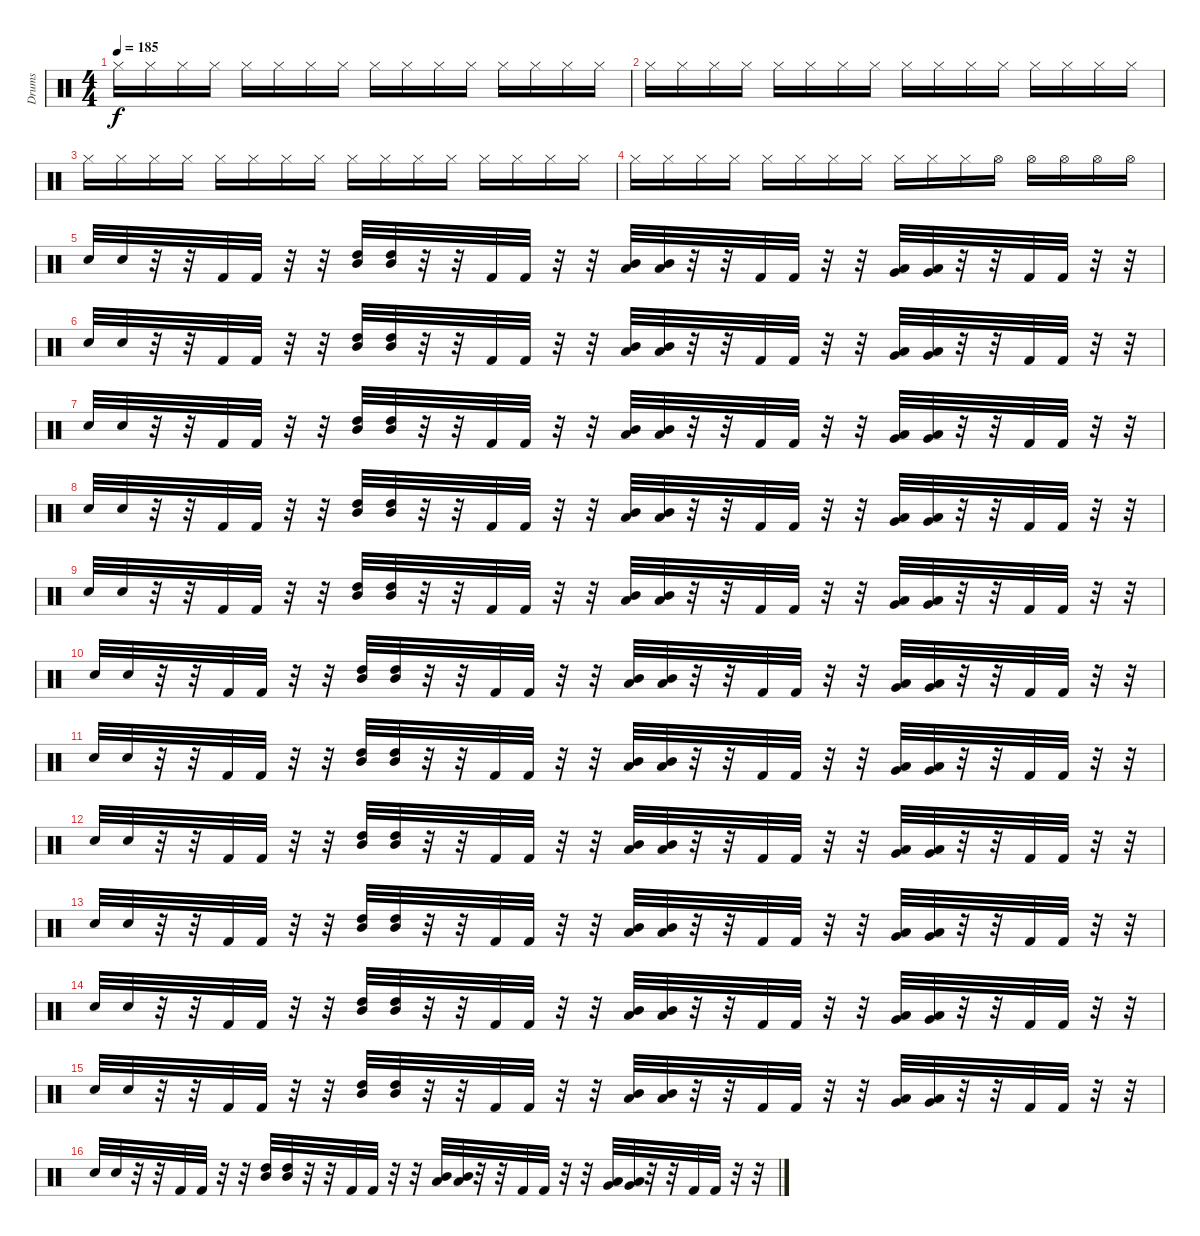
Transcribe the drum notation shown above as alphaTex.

\track ("Drums" "Drums") {instrument percussion}
\staff {score}
\articulation defaults
\ts (4 4)
\tempo 185
\clef neutral
\ks c "Hi-Hat (closed)".16{dy f} "Hi-Hat (closed)".16 "Hi-Hat (closed)".16 "Hi-Hat (closed)".16 "Hi-Hat (closed)".16 "Hi-Hat (closed)".16 "Hi-Hat (closed)".16 "Hi-Hat (closed)".16 "Hi-Hat (closed)".16 "Hi-Hat (closed)".16 "Hi-Hat (closed)".16 "Hi-Hat (closed)".16 "Hi-Hat (closed)".16 "Hi-Hat (closed)".16 "Hi-Hat (closed)".16 "Hi-Hat (closed)".16
|
"Hi-Hat (closed)".16 "Hi-Hat (closed)".16 "Hi-Hat (closed)".16 "Hi-Hat (closed)".16 "Hi-Hat (closed)".16 "Hi-Hat (closed)".16 "Hi-Hat (closed)".16 "Hi-Hat (closed)".16 "Hi-Hat (closed)".16 "Hi-Hat (closed)".16 "Hi-Hat (closed)".16 "Hi-Hat (closed)".16 "Hi-Hat (closed)".16 "Hi-Hat (closed)".16 "Hi-Hat (closed)".16 "Hi-Hat (closed)".16 |
"Hi-Hat (closed)".16 "Hi-Hat (closed)".16 "Hi-Hat (closed)".16 "Hi-Hat (closed)".16 "Hi-Hat (closed)".16 "Hi-Hat (closed)".16 "Hi-Hat (closed)".16 "Hi-Hat (closed)".16 "Hi-Hat (closed)".16 "Hi-Hat (closed)".16 "Hi-Hat (closed)".16 "Hi-Hat (closed)".16 "Hi-Hat (closed)".16 "Hi-Hat (closed)".16 "Hi-Hat (closed)".16 "Hi-Hat (closed)".16 |
"Hi-Hat (closed)".16 "Hi-Hat (closed)".16 "Hi-Hat (closed)".16 "Hi-Hat (closed)".16 "Hi-Hat (closed)".16 "Hi-Hat (closed)".16 "Hi-Hat (closed)".16 "Hi-Hat (closed)".16 "Hi-Hat (closed)".16 "Hi-Hat (closed)".16 "Hi-Hat (closed)".16 "Hi-Hat (open)".16 "Hi-Hat (open)".16 "Hi-Hat (open)".16 "Hi-Hat (open)".16 "Hi-Hat (open)".16 |
"Snare (hit) 2".32 "Snare (hit) 2".32 r.32 r.32 "Kick (hit) 2".32 "Kick (hit) 2".32 r.32 r.32 ("High Tom (hit)" "Mid Tom (hit)").32 ("High Tom (hit)" "Mid Tom (hit)").32 r.32 r.32 "Kick (hit) 2".32 "Kick (hit) 2".32 r.32 r.32 ("Mid Tom (hit)" "Low Tom (hit)").32 ("Mid Tom (hit)" "Low Tom (hit)").32 r.32 r.32 "Kick (hit) 2".32 "Kick (hit) 2".32 r.32 r.32 ("Very Low Tom (hit)" "Low Tom (hit)").32 ("Very Low Tom (hit)" "Low Tom (hit)").32 r.32 r.32 "Kick (hit) 2".32 "Kick (hit) 2".32 r.32 r.32 |
"Snare (hit) 2".32 "Snare (hit) 2".32 r.32 r.32 "Kick (hit) 2".32 "Kick (hit) 2".32 r.32 r.32 ("High Tom (hit)" "Mid Tom (hit)").32 ("High Tom (hit)" "Mid Tom (hit)").32 r.32 r.32 "Kick (hit) 2".32 "Kick (hit) 2".32 r.32 r.32 ("Mid Tom (hit)" "Low Tom (hit)").32 ("Mid Tom (hit)" "Low Tom (hit)").32 r.32 r.32 "Kick (hit) 2".32 "Kick (hit) 2".32 r.32 r.32 ("Very Low Tom (hit)" "Low Tom (hit)").32 ("Very Low Tom (hit)" "Low Tom (hit)").32 r.32 r.32 "Kick (hit) 2".32 "Kick (hit) 2".32 r.32 r.32 |
"Snare (hit) 2".32 "Snare (hit) 2".32 r.32 r.32 "Kick (hit) 2".32 "Kick (hit) 2".32 r.32 r.32 ("High Tom (hit)" "Mid Tom (hit)").32 ("High Tom (hit)" "Mid Tom (hit)").32 r.32 r.32 "Kick (hit) 2".32 "Kick (hit) 2".32 r.32 r.32 ("Mid Tom (hit)" "Low Tom (hit)").32 ("Mid Tom (hit)" "Low Tom (hit)").32 r.32 r.32 "Kick (hit) 2".32 "Kick (hit) 2".32 r.32 r.32 ("Very Low Tom (hit)" "Low Tom (hit)").32 ("Very Low Tom (hit)" "Low Tom (hit)").32 r.32 r.32 "Kick (hit) 2".32 "Kick (hit) 2".32 r.32 r.32 |
"Snare (hit) 2".32 "Snare (hit) 2".32 r.32 r.32 "Kick (hit) 2".32 "Kick (hit) 2".32 r.32 r.32 ("High Tom (hit)" "Mid Tom (hit)").32 ("High Tom (hit)" "Mid Tom (hit)").32 r.32 r.32 "Kick (hit) 2".32 "Kick (hit) 2".32 r.32 r.32 ("Mid Tom (hit)" "Low Tom (hit)").32 ("Mid Tom (hit)" "Low Tom (hit)").32 r.32 r.32 "Kick (hit) 2".32 "Kick (hit) 2".32 r.32 r.32 ("Very Low Tom (hit)" "Low Tom (hit)").32 ("Very Low Tom (hit)" "Low Tom (hit)").32 r.32 r.32 "Kick (hit) 2".32 "Kick (hit) 2".32 r.32 r.32 |
"Snare (hit) 2".32 "Snare (hit) 2".32 r.32 r.32 "Kick (hit) 2".32 "Kick (hit) 2".32 r.32 r.32 ("High Tom (hit)" "Mid Tom (hit)").32 ("High Tom (hit)" "Mid Tom (hit)").32 r.32 r.32 "Kick (hit) 2".32 "Kick (hit) 2".32 r.32 r.32 ("Mid Tom (hit)" "Low Tom (hit)").32 ("Mid Tom (hit)" "Low Tom (hit)").32 r.32 r.32 "Kick (hit) 2".32 "Kick (hit) 2".32 r.32 r.32 ("Very Low Tom (hit)" "Low Tom (hit)").32 ("Very Low Tom (hit)" "Low Tom (hit)").32 r.32 r.32 "Kick (hit) 2".32 "Kick (hit) 2".32 r.32 r.32 |
"Snare (hit) 2".32 "Snare (hit) 2".32 r.32 r.32 "Kick (hit) 2".32 "Kick (hit) 2".32 r.32 r.32 ("High Tom (hit)" "Mid Tom (hit)").32 ("High Tom (hit)" "Mid Tom (hit)").32 r.32 r.32 "Kick (hit) 2".32 "Kick (hit) 2".32 r.32 r.32 ("Mid Tom (hit)" "Low Tom (hit)").32 ("Mid Tom (hit)" "Low Tom (hit)").32 r.32 r.32 "Kick (hit) 2".32 "Kick (hit) 2".32 r.32 r.32 ("Very Low Tom (hit)" "Low Tom (hit)").32 ("Very Low Tom (hit)" "Low Tom (hit)").32 r.32 r.32 "Kick (hit) 2".32 "Kick (hit) 2".32 r.32 r.32 |
"Snare (hit) 2".32 "Snare (hit) 2".32 r.32 r.32 "Kick (hit) 2".32 "Kick (hit) 2".32 r.32 r.32 ("High Tom (hit)" "Mid Tom (hit)").32 ("High Tom (hit)" "Mid Tom (hit)").32 r.32 r.32 "Kick (hit) 2".32 "Kick (hit) 2".32 r.32 r.32 ("Mid Tom (hit)" "Low Tom (hit)").32 ("Mid Tom (hit)" "Low Tom (hit)").32 r.32 r.32 "Kick (hit) 2".32 "Kick (hit) 2".32 r.32 r.32 ("Very Low Tom (hit)" "Low Tom (hit)").32 ("Very Low Tom (hit)" "Low Tom (hit)").32 r.32 r.32 "Kick (hit) 2".32 "Kick (hit) 2".32 r.32 r.32 |
"Snare (hit) 2".32 "Snare (hit) 2".32 r.32 r.32 "Kick (hit) 2".32 "Kick (hit) 2".32 r.32 r.32 ("High Tom (hit)" "Mid Tom (hit)").32 ("High Tom (hit)" "Mid Tom (hit)").32 r.32 r.32 "Kick (hit) 2".32 "Kick (hit) 2".32 r.32 r.32 ("Mid Tom (hit)" "Low Tom (hit)").32 ("Mid Tom (hit)" "Low Tom (hit)").32 r.32 r.32 "Kick (hit) 2".32 "Kick (hit) 2".32 r.32 r.32 ("Very Low Tom (hit)" "Low Tom (hit)").32 ("Very Low Tom (hit)" "Low Tom (hit)").32 r.32 r.32 "Kick (hit) 2".32 "Kick (hit) 2".32 r.32 r.32 |
"Snare (hit) 2".32 "Snare (hit) 2".32 r.32 r.32 "Kick (hit) 2".32 "Kick (hit) 2".32 r.32 r.32 ("High Tom (hit)" "Mid Tom (hit)").32 ("High Tom (hit)" "Mid Tom (hit)").32 r.32 r.32 "Kick (hit) 2".32 "Kick (hit) 2".32 r.32 r.32 ("Mid Tom (hit)" "Low Tom (hit)").32 ("Mid Tom (hit)" "Low Tom (hit)").32 r.32 r.32 "Kick (hit) 2".32 "Kick (hit) 2".32 r.32 r.32 ("Very Low Tom (hit)" "Low Tom (hit)").32 ("Very Low Tom (hit)" "Low Tom (hit)").32 r.32 r.32 "Kick (hit) 2".32 "Kick (hit) 2".32 r.32 r.32 |
"Snare (hit) 2".32 "Snare (hit) 2".32 r.32 r.32 "Kick (hit) 2".32 "Kick (hit) 2".32 r.32 r.32 ("High Tom (hit)" "Mid Tom (hit)").32 ("High Tom (hit)" "Mid Tom (hit)").32 r.32 r.32 "Kick (hit) 2".32 "Kick (hit) 2".32 r.32 r.32 ("Mid Tom (hit)" "Low Tom (hit)").32 ("Mid Tom (hit)" "Low Tom (hit)").32 r.32 r.32 "Kick (hit) 2".32 "Kick (hit) 2".32 r.32 r.32 ("Very Low Tom (hit)" "Low Tom (hit)").32 ("Very Low Tom (hit)" "Low Tom (hit)").32 r.32 r.32 "Kick (hit) 2".32 "Kick (hit) 2".32 r.32 r.32 |
"Snare (hit) 2".32 "Snare (hit) 2".32 r.32 r.32 "Kick (hit) 2".32 "Kick (hit) 2".32 r.32 r.32 ("High Tom (hit)" "Mid Tom (hit)").32 ("High Tom (hit)" "Mid Tom (hit)").32 r.32 r.32 "Kick (hit) 2".32 "Kick (hit) 2".32 r.32 r.32 ("Mid Tom (hit)" "Low Tom (hit)").32 ("Mid Tom (hit)" "Low Tom (hit)").32 r.32 r.32 "Kick (hit) 2".32 "Kick (hit) 2".32 r.32 r.32 ("Very Low Tom (hit)" "Low Tom (hit)").32 ("Very Low Tom (hit)" "Low Tom (hit)").32 r.32 r.32 "Kick (hit) 2".32 "Kick (hit) 2".32 r.32 r.32 |
"Snare (hit) 2".32 "Snare (hit) 2".32 r.32 r.32 "Kick (hit) 2".32 "Kick (hit) 2".32 r.32 r.32 ("High Tom (hit)" "Mid Tom (hit)").32 ("High Tom (hit)" "Mid Tom (hit)").32 r.32 r.32 "Kick (hit) 2".32 "Kick (hit) 2".32 r.32 r.32 ("Mid Tom (hit)" "Low Tom (hit)").32 ("Mid Tom (hit)" "Low Tom (hit)").32 r.32 r.32 "Kick (hit) 2".32 "Kick (hit) 2".32 r.32 r.32 ("Very Low Tom (hit)" "Low Tom (hit)").32 ("Very Low Tom (hit)" "Low Tom (hit)").32 r.32 r.32 "Kick (hit) 2".32 "Kick (hit) 2".32 r.32 r.32
